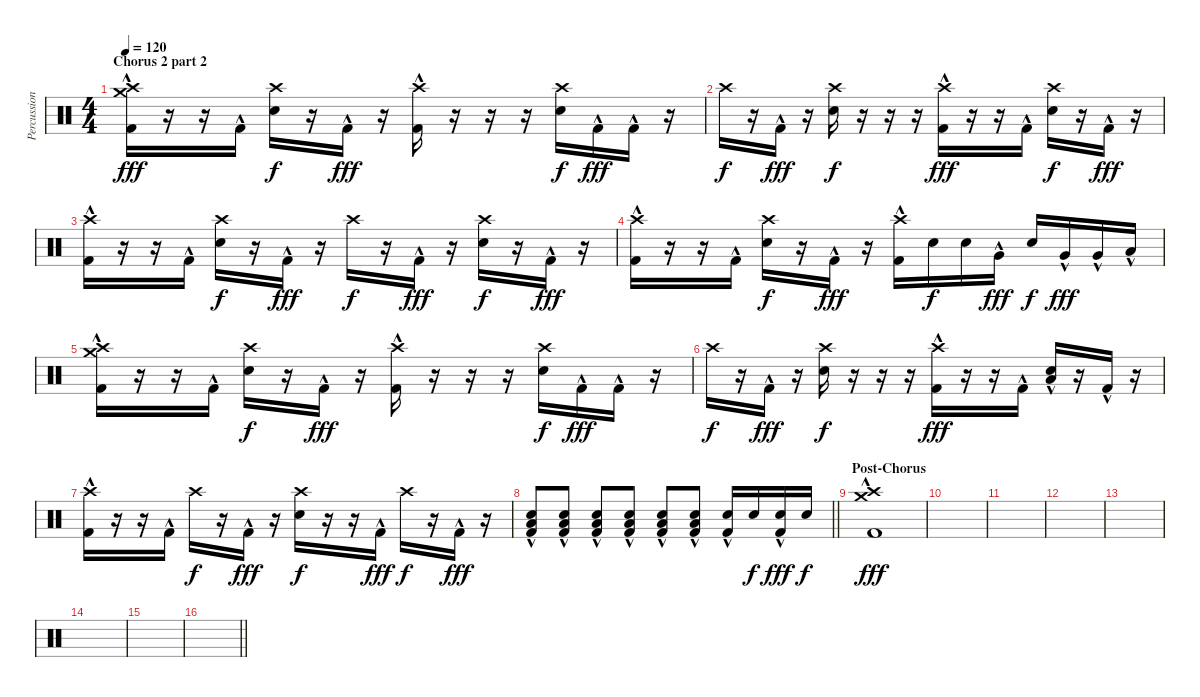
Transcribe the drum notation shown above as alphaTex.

\track ("Percussion" "Percussion") {instrument percussion}
\staff {score}
\articulation defaults
\ts (4 4)
\section ("" "Chorus 2 part 2")
\tempo 120
\clef neutral
\ks c
("Crash high (hit)" "Crash medium (hit)" "Kick (hit) 2"{hac}).16{dy fff} r.16 r.16 "Kick (hit) 2"{hac}.16 ("Crash high (hit)" "Snare (hit) 2").16{dy f} r.16 "Kick (hit) 2"{hac}.16{dy fff} r.16 ("Crash high (hit)" "Kick (hit) 2"{hac}).16 r.16 r.16 r.16 ("Crash high (hit)" "Snare (hit) 2").16{dy f} "Kick (hit) 2"{hac}.16{dy fff} "Kick (hit) 2"{hac}.16 r.16 |
"Crash high (hit)".16{dy f} r.16 "Kick (hit) 2"{hac}.16{dy fff} r.16 ("Crash high (hit)" "Snare (hit) 2").16{dy f} r.16 r.16 r.16 ("Crash high (hit)" "Kick (hit) 2"{hac}).16{dy fff} r.16 r.16 "Kick (hit) 2"{hac}.16 ("Crash high (hit)" "Snare (hit) 2").16{dy f} r.16 "Kick (hit) 2"{hac}.16{dy fff} r.16 |
("Crash high (hit)" "Kick (hit) 2"{hac}).16 r.16 r.16 "Kick (hit) 2"{hac}.16 ("Crash high (hit)" "Snare (hit) 2").16{dy f} r.16 "Kick (hit) 2"{hac}.16{dy fff} r.16 "Crash high (hit)".16{dy f} r.16 "Kick (hit) 2"{hac}.16{dy fff} r.16 ("Crash high (hit)" "Snare (hit) 2").16{dy f} r.16 "Kick (hit) 2"{hac}.16{dy fff} r.16 |
("Crash high (hit)" "Kick (hit) 2"{hac}).16 r.16 r.16 "Kick (hit) 2"{hac}.16 ("Crash high (hit)" "Snare (hit) 2").16{dy f} r.16 "Kick (hit) 2"{hac}.16{dy fff} r.16 ("Crash high (hit)" "Kick (hit) 2"{hac}).16 "Snare (hit) 2".16{dy f} "Snare (hit) 2".16 "Very Low Tom (hit)"{hac}.16{dy fff} "Snare (hit) 2".16{dy f} "Very Low Tom (hit)"{hac}.16{dy fff} "Very Low Tom (hit)"{hac}.16 "Low Floor Tom (hit)"{hac}.16 |
("Crash high (hit)" "Crash medium (hit)" "Kick (hit) 2"{hac}).16 r.16 r.16 "Kick (hit) 2"{hac}.16 ("Crash high (hit)" "Snare (hit) 2").16{dy f} r.16 "Kick (hit) 2"{hac}.16{dy fff} r.16 ("Crash high (hit)" "Kick (hit) 2"{hac}).16 r.16 r.16 r.16 ("Crash high (hit)" "Snare (hit) 2").16{dy f} "Kick (hit) 2"{hac}.16{dy fff} "Kick (hit) 2"{hac}.16 r.16 |
"Crash high (hit)".16{dy f} r.16 "Kick (hit) 2"{hac}.16{dy fff} r.16 ("Crash high (hit)" "Snare (hit) 2").16{dy f} r.16 r.16 r.16 ("Crash high (hit)" "Kick (hit) 2"{hac}).16{dy fff} r.16 r.16 "Kick (hit) 2"{hac}.16 ("Low Floor Tom (hit)"{hac} "Snare (hit) 2").16 r.16 "Kick (hit) 2"{hac}.16 r.16 |
("Crash high (hit)" "Kick (hit) 2"{hac}).16 r.16 r.16 "Kick (hit) 2"{hac}.16 "Crash high (hit)".16{dy f} r.16 "Kick (hit) 2"{hac}.16{dy fff} r.16 ("Crash high (hit)" "Snare (hit) 2").16{dy f} r.16 r.16 "Kick (hit) 2"{hac}.16{dy fff} "Crash high (hit)".16{dy f} r.16 "Kick (hit) 2"{hac}.16{dy fff} r.16 |
\barLineRight lightlight
("Low Floor Tom (hit)"{hac} "Snare (hit) 2" "Kick (hit) 2"{hac}).8 ("Low Floor Tom (hit)"{hac} "Snare (hit) 2" "Kick (hit) 2"{hac}).8 ("Low Floor Tom (hit)"{hac} "Snare (hit) 2" "Kick (hit) 2"{hac}).8 ("Low Floor Tom (hit)"{hac} "Snare (hit) 2" "Kick (hit) 2"{hac}).8 ("Low Floor Tom (hit)"{hac} "Snare (hit) 2" "Kick (hit) 2"{hac}).8 ("Low Floor Tom (hit)"{hac} "Snare (hit) 2" "Kick (hit) 2"{hac}).8 ("Snare (hit) 2" "Kick (hit) 2"{hac}).16 "Snare (hit) 2".16{dy f} ("Snare (hit) 2" "Kick (hit) 2"{hac}).16{dy fff} "Snare (hit) 2".16{dy f} |
\section ("" "Post-Chorus")
("Crash high (hit)" "Crash medium (hit)" "Kick (hit) 2"{hac}).1{dy fff} |
|
|
|
|
|
|
\barLineRight lightlight
